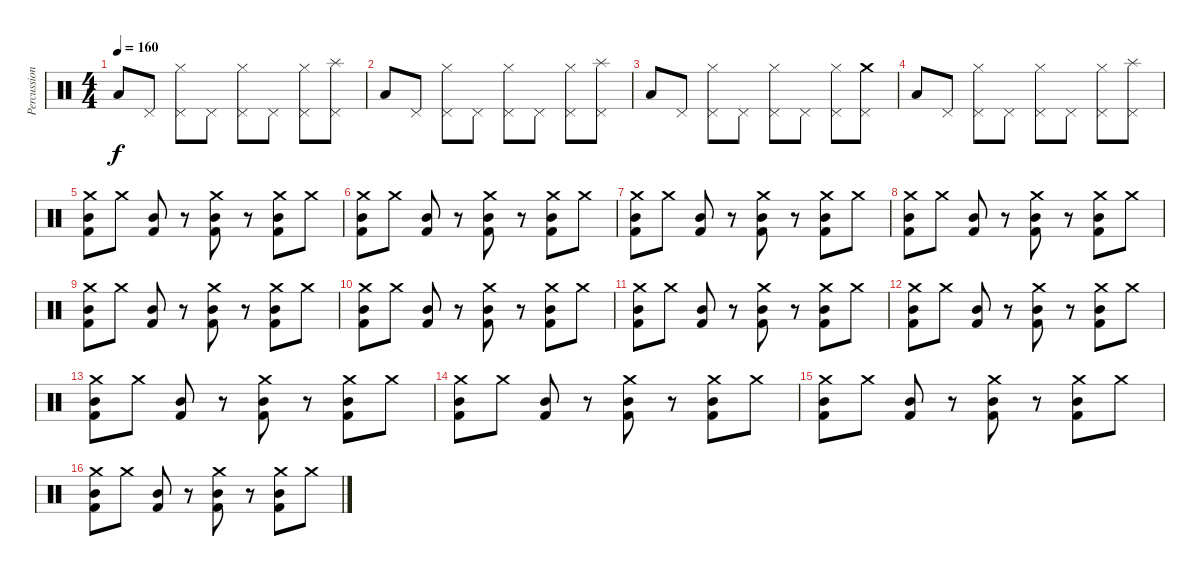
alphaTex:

\track ("Percussion" "Percussion") {instrument percussion}
\staff {score}
\articulation defaults
\ts (4 4)
\tempo 160
\clef neutral
\ks c "Low Tom (hit)".8{dy f} "Pedal Hi-Hat (hit)".8
("Pedal Hi-Hat (hit)" "Hi-Hat (closed)").8 "Pedal Hi-Hat (hit)".8 ("Pedal Hi-Hat (hit)" "Hi-Hat (closed)").8 "Pedal Hi-Hat (hit)".8 ("Pedal Hi-Hat (hit)" "Hi-Hat (closed)").8 ("Pedal Hi-Hat (hit)" "Splash (hit)").8 |
"Low Tom (hit)".8 "Pedal Hi-Hat (hit)".8 ("Pedal Hi-Hat (hit)" "Hi-Hat (closed)").8 "Pedal Hi-Hat (hit)".8 ("Pedal Hi-Hat (hit)" "Hi-Hat (closed)").8 "Pedal Hi-Hat (hit)".8 ("Pedal Hi-Hat (hit)" "Hi-Hat (closed)").8 ("Pedal Hi-Hat (hit)" "Splash (hit)").8 |
"Low Tom (hit)".8 "Pedal Hi-Hat (hit)".8 ("Pedal Hi-Hat (hit)" "Hi-Hat (closed)").8 "Pedal Hi-Hat (hit)".8 ("Pedal Hi-Hat (hit)" "Hi-Hat (closed)").8 "Pedal Hi-Hat (hit)".8 ("Pedal Hi-Hat (hit)" "Hi-Hat (closed)").8 ("Pedal Hi-Hat (hit)" "Crash medium (hit)").8 |
"Low Tom (hit)".8 "Pedal Hi-Hat (hit)".8 ("Pedal Hi-Hat (hit)" "Hi-Hat (closed)").8 "Pedal Hi-Hat (hit)".8 ("Pedal Hi-Hat (hit)" "Hi-Hat (closed)").8 "Pedal Hi-Hat (hit)".8 ("Pedal Hi-Hat (hit)" "Hi-Hat (closed)").8 ("Pedal Hi-Hat (hit)" "Splash (hit)").8 |
("Crash medium (hit)" "Mid Tom (hit)" "Kick (hit) 2").8 "Crash medium (hit)".8 ("Mid Tom (hit)" "Kick (hit) 2").8 r.8 ("Crash medium (hit)" "Mid Tom (hit)" "Kick (hit) 2").8 r.8 ("Crash medium (hit)" "Mid Tom (hit)" "Kick (hit) 2").8 "Crash medium (hit)".8 |
("Crash medium (hit)" "Mid Tom (hit)" "Kick (hit) 2").8 "Crash medium (hit)".8 ("Mid Tom (hit)" "Kick (hit) 2").8 r.8 ("Crash medium (hit)" "Mid Tom (hit)" "Kick (hit) 2").8 r.8 ("Crash medium (hit)" "Mid Tom (hit)" "Kick (hit) 2").8 "Crash medium (hit)".8 |
("Crash medium (hit)" "Mid Tom (hit)" "Kick (hit) 2").8 "Crash medium (hit)".8 ("Mid Tom (hit)" "Kick (hit) 2").8 r.8 ("Crash medium (hit)" "Mid Tom (hit)" "Kick (hit) 2").8 r.8 ("Crash medium (hit)" "Mid Tom (hit)" "Kick (hit) 2").8 "Crash medium (hit)".8 |
("Crash medium (hit)" "Mid Tom (hit)" "Kick (hit) 2").8 "Crash medium (hit)".8 ("Mid Tom (hit)" "Kick (hit) 2").8 r.8 ("Crash medium (hit)" "Mid Tom (hit)" "Kick (hit) 2").8 r.8 ("Crash medium (hit)" "Mid Tom (hit)" "Kick (hit) 2").8 "Crash medium (hit)".8 |
("Crash medium (hit)" "Mid Tom (hit)" "Kick (hit) 2").8 "Crash medium (hit)".8 ("Mid Tom (hit)" "Kick (hit) 2").8 r.8 ("Crash medium (hit)" "Mid Tom (hit)" "Kick (hit) 2").8 r.8 ("Crash medium (hit)" "Mid Tom (hit)" "Kick (hit) 2").8 "Crash medium (hit)".8 |
("Crash medium (hit)" "Mid Tom (hit)" "Kick (hit) 2").8 "Crash medium (hit)".8 ("Mid Tom (hit)" "Kick (hit) 2").8 r.8 ("Crash medium (hit)" "Mid Tom (hit)" "Kick (hit) 2").8 r.8 ("Crash medium (hit)" "Mid Tom (hit)" "Kick (hit) 2").8 "Crash medium (hit)".8 |
("Crash medium (hit)" "Mid Tom (hit)" "Kick (hit) 2").8 "Crash medium (hit)".8 ("Mid Tom (hit)" "Kick (hit) 2").8 r.8 ("Crash medium (hit)" "Mid Tom (hit)" "Kick (hit) 2").8 r.8 ("Crash medium (hit)" "Mid Tom (hit)" "Kick (hit) 2").8 "Crash medium (hit)".8 |
("Crash medium (hit)" "Mid Tom (hit)" "Kick (hit) 2").8 "Crash medium (hit)".8 ("Mid Tom (hit)" "Kick (hit) 2").8 r.8 ("Crash medium (hit)" "Mid Tom (hit)" "Kick (hit) 2").8 r.8 ("Crash medium (hit)" "Mid Tom (hit)" "Kick (hit) 2").8 "Crash medium (hit)".8 |
("Crash medium (hit)" "Mid Tom (hit)" "Kick (hit) 2").8 "Crash medium (hit)".8 ("Mid Tom (hit)" "Kick (hit) 2").8 r.8 ("Crash medium (hit)" "Mid Tom (hit)" "Kick (hit) 2").8 r.8 ("Crash medium (hit)" "Mid Tom (hit)" "Kick (hit) 2").8 "Crash medium (hit)".8 |
("Crash medium (hit)" "Mid Tom (hit)" "Kick (hit) 2").8 "Crash medium (hit)".8 ("Mid Tom (hit)" "Kick (hit) 2").8 r.8 ("Crash medium (hit)" "Mid Tom (hit)" "Kick (hit) 2").8 r.8 ("Crash medium (hit)" "Mid Tom (hit)" "Kick (hit) 2").8 "Crash medium (hit)".8 |
("Crash medium (hit)" "Mid Tom (hit)" "Kick (hit) 2").8 "Crash medium (hit)".8 ("Mid Tom (hit)" "Kick (hit) 2").8 r.8 ("Crash medium (hit)" "Mid Tom (hit)" "Kick (hit) 2").8 r.8 ("Crash medium (hit)" "Mid Tom (hit)" "Kick (hit) 2").8 "Crash medium (hit)".8 |
("Crash medium (hit)" "Mid Tom (hit)" "Kick (hit) 2").8 "Crash medium (hit)".8 ("Mid Tom (hit)" "Kick (hit) 2").8 r.8 ("Crash medium (hit)" "Mid Tom (hit)" "Kick (hit) 2").8 r.8 ("Crash medium (hit)" "Mid Tom (hit)" "Kick (hit) 2").8 "Crash medium (hit)".8
